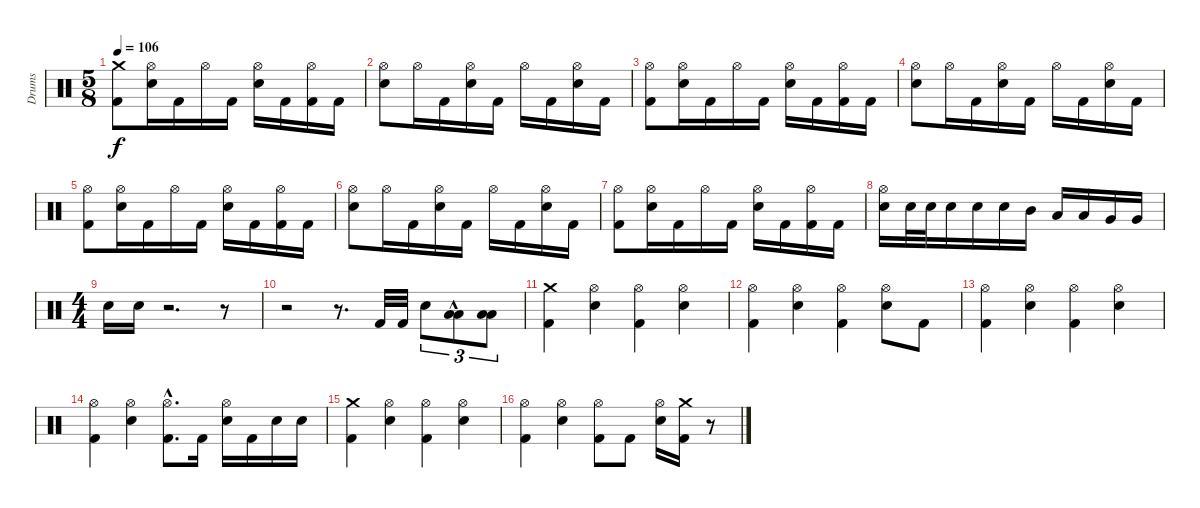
\track ("Drums" "Drums") {instrument percussion}
\staff {score}
\articulation defaults
\ts (5 8)
\tempo 106
\clef neutral
\ks c
("Kick (hit) 2" "Crash medium (hit)").8{dy f} ("Electric Snare (hit)" "Hi-Hat (open)").16 "Kick (hit) 2".16 "Hi-Hat (open)".16 "Kick (hit) 2".16 ("Electric Snare (hit)" "Hi-Hat (open)").16 "Kick (hit) 2".16 ("Kick (hit) 2" "Hi-Hat (open)").16 "Kick (hit) 2".16 |
("Electric Snare (hit)" "Hi-Hat (open)").8 "Hi-Hat (open)".16 "Kick (hit) 2".16 ("Electric Snare (hit)" "Hi-Hat (open)").16 "Kick (hit) 2".16 "Hi-Hat (open)".16 "Kick (hit) 2".16 ("Electric Snare (hit)" "Hi-Hat (open)").16 "Kick (hit) 2".16 |
("Kick (hit) 2" "Hi-Hat (open)").8 ("Electric Snare (hit)" "Hi-Hat (open)").16 "Kick (hit) 2".16 "Hi-Hat (open)".16 "Kick (hit) 2".16 ("Electric Snare (hit)" "Hi-Hat (open)").16 "Kick (hit) 2".16 ("Kick (hit) 2" "Hi-Hat (open)").16 "Kick (hit) 2".16 |
("Electric Snare (hit)" "Hi-Hat (open)").8 "Hi-Hat (open)".16 "Kick (hit) 2".16 ("Electric Snare (hit)" "Hi-Hat (open)").16 "Kick (hit) 2".16 "Hi-Hat (open)".16 "Kick (hit) 2".16 ("Electric Snare (hit)" "Hi-Hat (open)").16 "Kick (hit) 2".16 |
("Kick (hit) 2" "Hi-Hat (open)").8 ("Electric Snare (hit)" "Hi-Hat (open)").16 "Kick (hit) 2".16 "Hi-Hat (open)".16 "Kick (hit) 2".16 ("Electric Snare (hit)" "Hi-Hat (open)").16 "Kick (hit) 2".16 ("Kick (hit) 2" "Hi-Hat (open)").16 "Kick (hit) 2".16 |
("Electric Snare (hit)" "Hi-Hat (open)").8 "Hi-Hat (open)".16 "Kick (hit) 2".16 ("Electric Snare (hit)" "Hi-Hat (open)").16 "Kick (hit) 2".16 "Hi-Hat (open)".16 "Kick (hit) 2".16 ("Electric Snare (hit)" "Hi-Hat (open)").16 "Kick (hit) 2".16 |
("Kick (hit) 2" "Hi-Hat (open)").8 ("Electric Snare (hit)" "Hi-Hat (open)").16 "Kick (hit) 2".16 "Hi-Hat (open)".16 "Kick (hit) 2".16 ("Electric Snare (hit)" "Hi-Hat (open)").16 "Kick (hit) 2".16 ("Kick (hit) 2" "Hi-Hat (open)").16 "Kick (hit) 2".16 |
("Electric Snare (hit)" "Hi-Hat (open)").16 "Electric Snare (hit)".32 "Electric Snare (hit)".32 "Electric Snare (hit)".16 "Electric Snare (hit)".16 "Electric Snare (hit)".16 "Mid Tom (hit)".16 "Low Tom (hit)".16 "Low Tom (hit)".16 "Very Low Tom (hit)".16 "Very Low Tom (hit)".16 |
\ts (4 4)
"Electric Snare (hit)".16 "Electric Snare (hit)".16 r.2{d} r.8 |
r.2 r.8{d} "Kick (hit) 2".32 "Kick (hit) 2".32 "Electric Snare (hit)".8{tu (3 2)} ("Low Tom (hit)" "Low Floor Tom (hit)"{hac}).8{tu (3 2)} ("Low Tom (hit)" "Low Floor Tom (hit)").8{tu (3 2)} |
("Crash medium (hit)" "Kick (hit) 2").4 ("Hi-Hat (open)" "Electric Snare (hit)").4 ("Hi-Hat (open)" "Kick (hit) 2").4 ("Hi-Hat (open)" "Electric Snare (hit)").4 |
("Hi-Hat (open)" "Kick (hit) 2").4 ("Hi-Hat (open)" "Electric Snare (hit)").4 ("Hi-Hat (open)" "Kick (hit) 2").4 ("Hi-Hat (open)" "Electric Snare (hit)").8 "Kick (hit) 2".8 |
("Hi-Hat (open)" "Kick (hit) 2").4 ("Hi-Hat (open)" "Electric Snare (hit)").4 ("Hi-Hat (open)" "Kick (hit) 2").4 ("Hi-Hat (open)" "Electric Snare (hit)").4 |
("Hi-Hat (open)" "Kick (hit) 2").4 ("Hi-Hat (open)" "Electric Snare (hit)").4 ("Hi-Hat (open)" "Kick (hit) 2"{hac}).8{d} "Kick (hit) 2".16 ("Hi-Hat (open)" "Electric Snare (hit)").16 "Kick (hit) 2".16 "Electric Snare (hit)".16 "Electric Snare (hit)".16 |
("Crash medium (hit)" "Kick (hit) 2").4 ("Hi-Hat (open)" "Electric Snare (hit)").4 ("Hi-Hat (open)" "Kick (hit) 2").4 ("Hi-Hat (open)" "Electric Snare (hit)").4 |
("Hi-Hat (open)" "Kick (hit) 2").4 ("Hi-Hat (open)" "Electric Snare (hit)").4 ("Hi-Hat (open)" "Kick (hit) 2").8 "Kick (hit) 2".8 ("Hi-Hat (open)" "Electric Snare (hit)").16 ("Crash medium (hit)" "Kick (hit) 2").16 r.8
